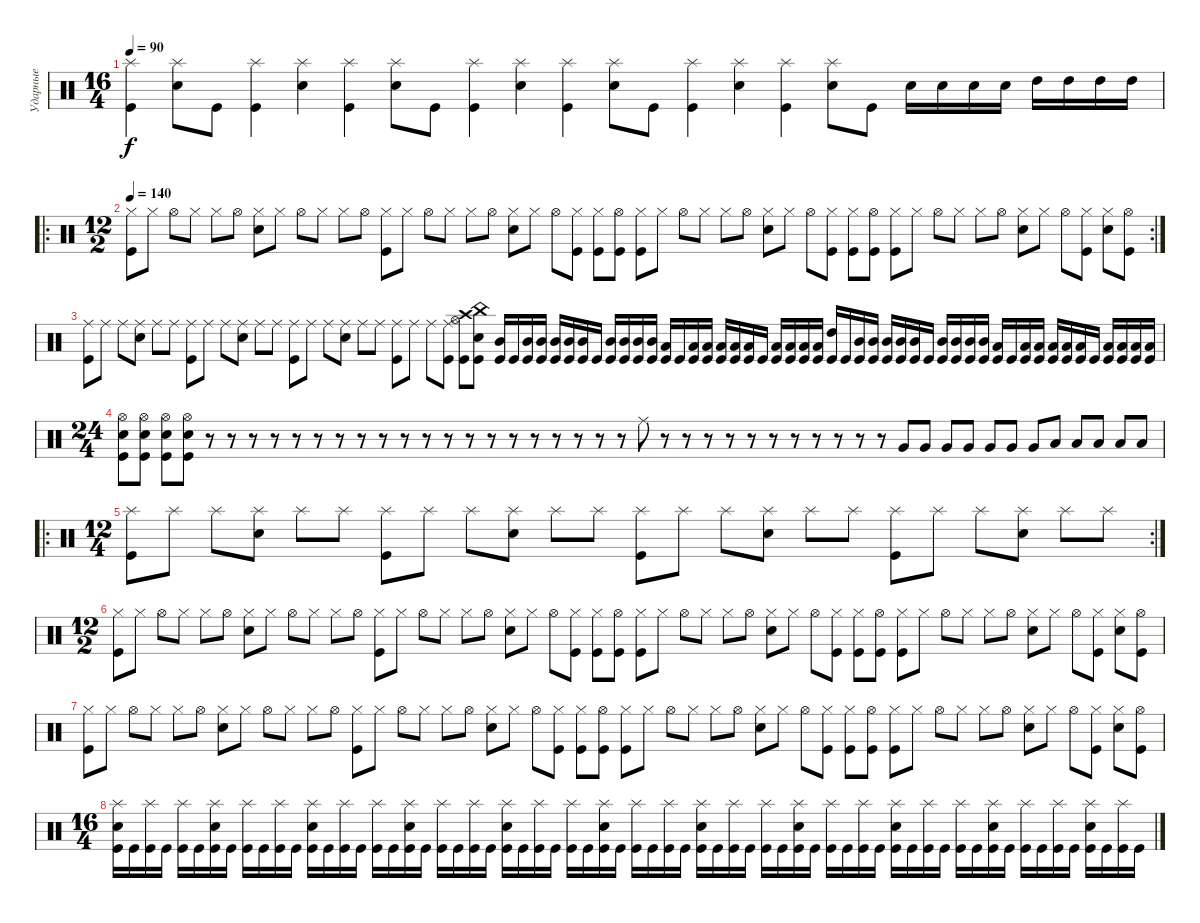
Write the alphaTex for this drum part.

\track ("Ударные" "Ударные") {instrument percussion}
\staff {score}
\articulation defaults
\ts (16 4)
\tempo 90
\clef neutral
\ks c
("Splash (hit)" "Kick (hit)").4{dy f} ("Splash (hit)" "Snare (hit) 2").8 "Kick (hit)".8 ("Splash (hit)" "Kick (hit)").4 ("Splash (hit)" "Snare (hit) 2").4 ("Splash (hit)" "Kick (hit)").4 ("Splash (hit)" "Snare (hit) 2").8 "Kick (hit)".8 ("Splash (hit)" "Kick (hit)").4 ("Splash (hit)" "Snare (hit) 2").4 ("Splash (hit)" "Kick (hit)").4 ("Splash (hit)" "Snare (hit) 2").8 "Kick (hit)".8 ("Splash (hit)" "Kick (hit)").4 ("Splash (hit)" "Snare (hit) 2").4 ("Splash (hit)" "Kick (hit)").4 ("Splash (hit)" "Snare (hit) 2").8 "Kick (hit)".8 "Snare (hit) 2".16 "Snare (hit) 2".16 "Snare (hit) 2".16 "Snare (hit) 2".16 "High Tom (hit)".16 "High Tom (hit)".16 "High Tom (hit)".16 "High Tom (hit)".16 |
\ro
\rc 2
\ts (12 2)
\tempo 140
("Hi-Hat (closed)" "Kick (hit)").8 "Hi-Hat (closed)".8 "Hi-Hat (open)".8 "Hi-Hat (closed)".8 "Hi-Hat (closed)".8 "Hi-Hat (open)".8 ("Hi-Hat (closed)" "Snare (hit) 2").8 "Hi-Hat (closed)".8 "Hi-Hat (open)".8 "Hi-Hat (closed)".8 "Hi-Hat (closed)".8 "Hi-Hat (open)".8 ("Hi-Hat (closed)" "Kick (hit)").8 "Hi-Hat (closed)".8 "Hi-Hat (open)".8 "Hi-Hat (closed)".8 "Hi-Hat (closed)".8 "Hi-Hat (open)".8 ("Hi-Hat (closed)" "Snare (hit) 2").8 "Hi-Hat (closed)".8 "Hi-Hat (open)".8 ("Hi-Hat (closed)" "Kick (hit)").8 ("Hi-Hat (closed)" "Kick (hit)").8 ("Hi-Hat (open)" "Kick (hit)").8 ("Hi-Hat (closed)" "Kick (hit)").8 "Hi-Hat (closed)".8 "Hi-Hat (open)".8 "Hi-Hat (closed)".8 "Hi-Hat (closed)".8 "Hi-Hat (open)".8 ("Hi-Hat (closed)" "Snare (hit) 2").8 "Hi-Hat (closed)".8 "Hi-Hat (open)".8 ("Hi-Hat (closed)" "Kick (hit)").8 ("Hi-Hat (closed)" "Kick (hit)").8 ("Hi-Hat (open)" "Kick (hit)").8 ("Hi-Hat (closed)" "Kick (hit)").8 "Hi-Hat (closed)".8 "Hi-Hat (open)".8 "Hi-Hat (closed)".8 "Hi-Hat (closed)".8 "Hi-Hat (open)".8 ("Hi-Hat (closed)" "Snare (hit) 2").8 "Hi-Hat (closed)".8 "Hi-Hat (open)".8 ("Hi-Hat (closed)" "Kick (hit)").8 ("Hi-Hat (closed)" "Snare (hit) 2").8 ("Hi-Hat (open)" "Kick (hit)").8 |
("Ride (middle)" "Kick (hit)").8 "Ride (middle)".8 "Ride (middle)".8 ("Ride (middle)" "Snare (hit) 2").8 "Ride (middle)".8 "Ride (middle)".8 ("Ride (middle)" "Kick (hit)").8 "Ride (middle)".8 "Ride (middle)".8 ("Ride (middle)" "Snare (hit) 2").8 "Ride (middle)".8 "Ride (middle)".8 ("Ride (middle)" "Kick (hit)").8 "Ride (middle)".8 "Ride (middle)".8 ("Ride (middle)" "Snare (hit) 2").8 "Ride (middle)".8 "Ride (middle)".8 ("Ride (middle)" "Kick (hit)").8 "Ride (middle)".8 "Ride (middle)".8 ("Ride (middle)" "Kick (hit)").8 ("Crash high (hit)" "Kick (hit)" "Hi-Hat (open)").8 ("China (hit)" "Kick (hit)" "Snare (hit) 2").8 ("Mid Tom (hit)" "Kick (hit)").16 "Kick (hit)".16 ("Mid Tom (hit)" "Kick (hit)").16 ("Mid Tom (hit)" "Kick (hit)").16 ("Mid Tom (hit)" "Kick (hit)").16 ("Mid Tom (hit)" "Kick (hit)").16 ("Mid Tom (hit)" "Kick (hit)").16 "Kick (hit)".16 ("Mid Tom (hit)" "Kick (hit)").16 ("Mid Tom (hit)" "Kick (hit)").16 ("Mid Tom (hit)" "Kick (hit)").16 ("Mid Tom (hit)" "Kick (hit)").16 ("Low Tom (hit)" "Kick (hit)").16 "Kick (hit)".16 ("Low Tom (hit)" "Kick (hit)").16 ("Low Tom (hit)" "Kick (hit)").16 ("Low Tom (hit)" "Kick (hit)").16 ("Low Tom (hit)" "Kick (hit)").16 ("Low Tom (hit)" "Kick (hit)").16 "Kick (hit)".16 ("Low Tom (hit)" "Kick (hit)").16 ("Low Tom (hit)" "Kick (hit)").16 ("Low Tom (hit)" "Kick (hit)").16 ("Low Tom (hit)" "Kick (hit)").16 ("High Tom (hit)" "Kick (hit)").16 "Kick (hit)".16 ("Mid Tom (hit)" "Kick (hit)").16 ("Mid Tom (hit)" "Kick (hit)").16 ("Mid Tom (hit)" "Kick (hit)").16 ("Mid Tom (hit)" "Kick (hit)").16 ("Mid Tom (hit)" "Kick (hit)").16 "Kick (hit)".16 ("Mid Tom (hit)" "Kick (hit)").16 ("Mid Tom (hit)" "Kick (hit)").16 ("Mid Tom (hit)" "Kick (hit)").16 ("Mid Tom (hit)" "Kick (hit)").16 ("Low Tom (hit)" "Kick (hit)").16 "Kick (hit)".16 ("Low Tom (hit)" "Kick (hit)").16 ("Low Tom (hit)" "Kick (hit)").16 ("Low Tom (hit)" "Kick (hit)").16 ("Low Tom (hit)" "Kick (hit)").16 ("Low Tom (hit)" "Kick (hit)").16 "Kick (hit)".16 ("Low Tom (hit)" "Kick (hit)").16 ("Low Tom (hit)" "Kick (hit)").16 ("Low Tom (hit)" "Kick (hit)").16 ("Low Tom (hit)" "Kick (hit)").16 |
\ts (24 4)
("Kick (hit)" "Snare (hit) 2" "Hi-Hat (open)").8 ("Kick (hit)" "Snare (hit) 2" "Hi-Hat (open)").8 ("Kick (hit)" "Snare (hit) 2" "Hi-Hat (open)").8 ("Kick (hit)" "Snare (hit) 2" "Hi-Hat (open)").8 r.8 r.8 r.8 r.8 r.8 r.8 r.8 r.8 r.8 r.8 r.8 r.8 r.8 r.8 r.8 r.8 r.8 r.8 r.8 r.8 "Ride (middle)".8 r.8 r.8 r.8 r.8 r.8 r.8 r.8 r.8 r.8 r.8 r.8 "Very Low Tom (hit)".8 "Very Low Tom (hit)".8 "Very Low Tom (hit)".8 "Very Low Tom (hit)".8 "Very Low Tom (hit)".8 "Very Low Tom (hit)".8 "Very Low Tom (hit)".8 "Low Tom (hit)".8 "Low Tom (hit)".8 "Low Tom (hit)".8 "Low Tom (hit)".8 "Low Tom (hit)".8 |
\ro
\rc 2
\ts (12 4)
("Splash (hit)" "Kick (hit)").8 "Splash (hit)".8 "Splash (hit)".8 ("Splash (hit)" "Snare (hit) 2").8 "Splash (hit)".8 "Splash (hit)".8 ("Splash (hit)" "Kick (hit)").8 "Splash (hit)".8 "Splash (hit)".8 ("Splash (hit)" "Snare (hit) 2").8 "Splash (hit)".8 "Splash (hit)".8 ("Splash (hit)" "Kick (hit)").8 "Splash (hit)".8 "Splash (hit)".8 ("Splash (hit)" "Snare (hit) 2").8 "Splash (hit)".8 "Splash (hit)".8 ("Splash (hit)" "Kick (hit)").8 "Splash (hit)".8 "Splash (hit)".8 ("Splash (hit)" "Snare (hit) 2").8 "Splash (hit)".8 "Splash (hit)".8 |
\ts (12 2)
("Hi-Hat (closed)" "Kick (hit)").8 "Hi-Hat (closed)".8 "Hi-Hat (open)".8 "Hi-Hat (closed)".8 "Hi-Hat (closed)".8 "Hi-Hat (open)".8 ("Hi-Hat (closed)" "Snare (hit) 2").8 "Hi-Hat (closed)".8 "Hi-Hat (open)".8 "Hi-Hat (closed)".8 "Hi-Hat (closed)".8 "Hi-Hat (open)".8 ("Hi-Hat (closed)" "Kick (hit)").8 "Hi-Hat (closed)".8 "Hi-Hat (open)".8 "Hi-Hat (closed)".8 "Hi-Hat (closed)".8 "Hi-Hat (open)".8 ("Hi-Hat (closed)" "Snare (hit) 2").8 "Hi-Hat (closed)".8 "Hi-Hat (open)".8 ("Hi-Hat (closed)" "Kick (hit)").8 ("Hi-Hat (closed)" "Kick (hit)").8 ("Hi-Hat (open)" "Kick (hit)").8 ("Hi-Hat (closed)" "Kick (hit)").8 "Hi-Hat (closed)".8 "Hi-Hat (open)".8 "Hi-Hat (closed)".8 "Hi-Hat (closed)".8 "Hi-Hat (open)".8 ("Hi-Hat (closed)" "Snare (hit) 2").8 "Hi-Hat (closed)".8 "Hi-Hat (open)".8 ("Hi-Hat (closed)" "Kick (hit)").8 ("Hi-Hat (closed)" "Kick (hit)").8 ("Hi-Hat (open)" "Kick (hit)").8 ("Hi-Hat (closed)" "Kick (hit)").8 "Hi-Hat (closed)".8 "Hi-Hat (open)".8 "Hi-Hat (closed)".8 "Hi-Hat (closed)".8 "Hi-Hat (open)".8 ("Hi-Hat (closed)" "Snare (hit) 2").8 "Hi-Hat (closed)".8 "Hi-Hat (open)".8 ("Hi-Hat (closed)" "Kick (hit)").8 ("Hi-Hat (closed)" "Snare (hit) 2").8 ("Hi-Hat (open)" "Kick (hit)").8 |
("Hi-Hat (closed)" "Kick (hit)").8 "Hi-Hat (closed)".8 "Hi-Hat (open)".8 "Hi-Hat (closed)".8 "Hi-Hat (closed)".8 "Hi-Hat (open)".8 ("Hi-Hat (closed)" "Snare (hit) 2").8 "Hi-Hat (closed)".8 "Hi-Hat (open)".8 "Hi-Hat (closed)".8 "Hi-Hat (closed)".8 "Hi-Hat (open)".8 ("Hi-Hat (closed)" "Kick (hit)").8 "Hi-Hat (closed)".8 "Hi-Hat (open)".8 "Hi-Hat (closed)".8 "Hi-Hat (closed)".8 "Hi-Hat (open)".8 ("Hi-Hat (closed)" "Snare (hit) 2").8 "Hi-Hat (closed)".8 "Hi-Hat (open)".8 ("Hi-Hat (closed)" "Kick (hit)").8 ("Hi-Hat (closed)" "Kick (hit)").8 ("Hi-Hat (open)" "Kick (hit)").8 ("Hi-Hat (closed)" "Kick (hit)").8 "Hi-Hat (closed)".8 "Hi-Hat (open)".8 "Hi-Hat (closed)".8 "Hi-Hat (closed)".8 "Hi-Hat (open)".8 ("Hi-Hat (closed)" "Snare (hit) 2").8 "Hi-Hat (closed)".8 "Hi-Hat (open)".8 ("Hi-Hat (closed)" "Kick (hit)").8 ("Hi-Hat (closed)" "Kick (hit)").8 ("Hi-Hat (open)" "Kick (hit)").8 ("Hi-Hat (closed)" "Kick (hit)").8 "Hi-Hat (closed)".8 "Hi-Hat (open)".8 "Hi-Hat (closed)".8 "Hi-Hat (closed)".8 "Hi-Hat (open)".8 ("Hi-Hat (closed)" "Snare (hit) 2").8 "Hi-Hat (closed)".8 "Hi-Hat (open)".8 ("Hi-Hat (closed)" "Kick (hit)").8 ("Hi-Hat (closed)" "Snare (hit) 2").8 ("Hi-Hat (open)" "Kick (hit)").8 |
\ts (16 4)
("Splash (hit)" "Snare (hit) 2" "Kick (hit)").16 "Kick (hit)".16 ("Splash (hit)" "Kick (hit)").16 "Kick (hit)".16 ("Splash (hit)" "Kick (hit)").16 "Kick (hit)".16 ("Splash (hit)" "Snare (hit) 2" "Kick (hit)").16 "Kick (hit)".16 ("Splash (hit)" "Kick (hit)").16 "Kick (hit)".16 ("Splash (hit)" "Kick (hit)").16 "Kick (hit)".16 ("Splash (hit)" "Snare (hit) 2" "Kick (hit)").16 "Kick (hit)".16 ("Splash (hit)" "Kick (hit)").16 "Kick (hit)".16 ("Splash (hit)" "Kick (hit)").16 "Kick (hit)".16 ("Splash (hit)" "Snare (hit) 2" "Kick (hit)").16 "Kick (hit)".16 ("Splash (hit)" "Kick (hit)").16 "Kick (hit)".16 ("Splash (hit)" "Kick (hit)").16 "Kick (hit)".16 ("Splash (hit)" "Snare (hit) 2" "Kick (hit)").16 "Kick (hit)".16 ("Splash (hit)" "Kick (hit)").16 "Kick (hit)".16 ("Splash (hit)" "Kick (hit)").16 "Kick (hit)".16 ("Splash (hit)" "Snare (hit) 2" "Kick (hit)").16 "Kick (hit)".16 ("Splash (hit)" "Kick (hit)").16 "Kick (hit)".16 ("Splash (hit)" "Kick (hit)").16 "Kick (hit)".16 ("Splash (hit)" "Snare (hit) 2" "Kick (hit)").16 "Kick (hit)".16 ("Splash (hit)" "Kick (hit)").16 "Kick (hit)".16 ("Splash (hit)" "Kick (hit)").16 "Kick (hit)".16 ("Splash (hit)" "Snare (hit) 2" "Kick (hit)").16 "Kick (hit)".16 ("Splash (hit)" "Kick (hit)").16 "Kick (hit)".16 ("Splash (hit)" "Kick (hit)").16 "Kick (hit)".16 ("Splash (hit)" "Snare (hit) 2" "Kick (hit)").16 "Kick (hit)".16 ("Splash (hit)" "Kick (hit)").16 "Kick (hit)".16 ("Splash (hit)" "Kick (hit)").16 "Kick (hit)".16 ("Splash (hit)" "Snare (hit) 2" "Kick (hit)").16 "Kick (hit)".16 ("Splash (hit)" "Kick (hit)").16 "Kick (hit)".16 ("Splash (hit)" "Kick (hit)").16 "Kick (hit)".16 ("Splash (hit)" "Snare (hit) 2" "Kick (hit)").16 "Kick (hit)".16 ("Splash (hit)" "Kick (hit)").16 "Kick (hit)".16
